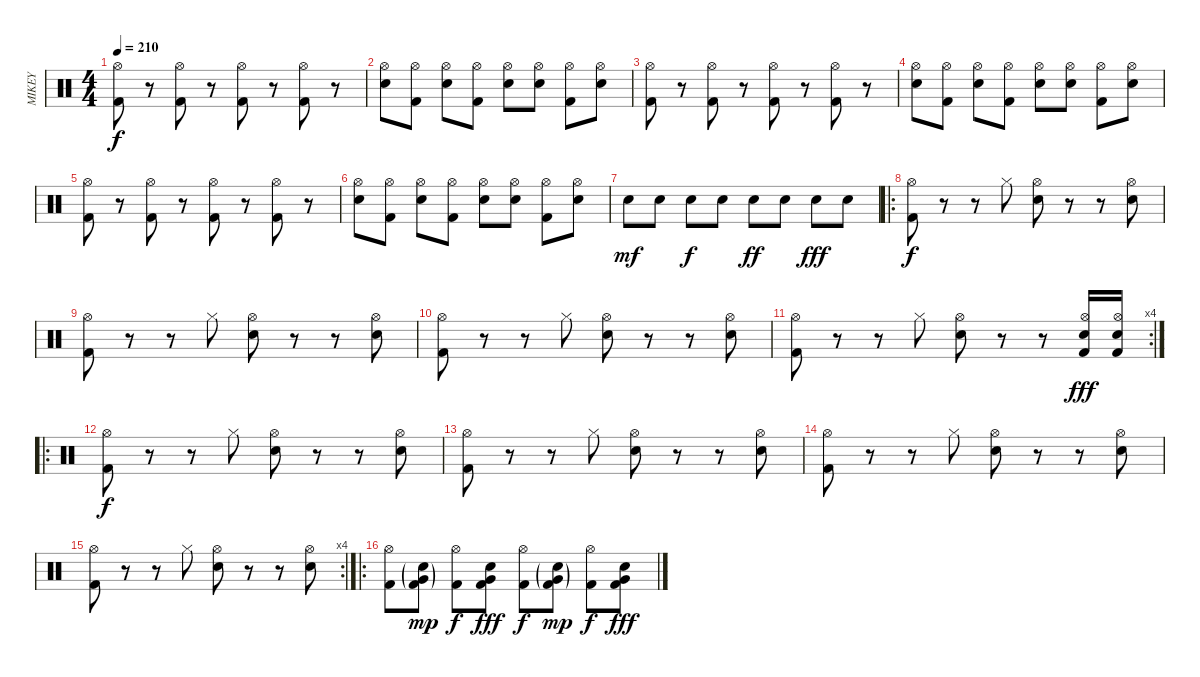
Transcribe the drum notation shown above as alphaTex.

\track ("MIKEY" "MIKEY") {instrument percussion}
\staff {score}
\articulation defaults
\ts (4 4)
\tempo 210
\clef neutral
\ks c
("Kick (hit) 2" "Hi-Hat (open)").8{dy f} r.8 ("Kick (hit) 2" "Hi-Hat (open)").8 r.8 ("Kick (hit) 2" "Hi-Hat (open)").8 r.8 ("Kick (hit) 2" "Hi-Hat (open)").8 r.8 |
("Snare (hit) 2" "Hi-Hat (open)").8 ("Kick (hit) 2" "Hi-Hat (open)").8 ("Snare (hit) 2" "Hi-Hat (open)").8 ("Kick (hit) 2" "Hi-Hat (open)").8 ("Snare (hit) 2" "Hi-Hat (open)").8 ("Snare (hit) 2" "Hi-Hat (open)").8 ("Kick (hit) 2" "Hi-Hat (open)").8 ("Snare (hit) 2" "Hi-Hat (open)").8 |
("Kick (hit) 2" "Hi-Hat (open)").8 r.8 ("Kick (hit) 2" "Hi-Hat (open)").8 r.8 ("Kick (hit) 2" "Hi-Hat (open)").8 r.8 ("Kick (hit) 2" "Hi-Hat (open)").8 r.8 |
("Snare (hit) 2" "Hi-Hat (open)").8 ("Kick (hit) 2" "Hi-Hat (open)").8 ("Snare (hit) 2" "Hi-Hat (open)").8 ("Kick (hit) 2" "Hi-Hat (open)").8 ("Snare (hit) 2" "Hi-Hat (open)").8 ("Snare (hit) 2" "Hi-Hat (open)").8 ("Kick (hit) 2" "Hi-Hat (open)").8 ("Snare (hit) 2" "Hi-Hat (open)").8 |
("Kick (hit) 2" "Hi-Hat (open)").8 r.8 ("Kick (hit) 2" "Hi-Hat (open)").8 r.8 ("Kick (hit) 2" "Hi-Hat (open)").8 r.8 ("Kick (hit) 2" "Hi-Hat (open)").8 r.8 |
("Snare (hit) 2" "Hi-Hat (open)").8 ("Kick (hit) 2" "Hi-Hat (open)").8 ("Snare (hit) 2" "Hi-Hat (open)").8 ("Kick (hit) 2" "Hi-Hat (open)").8 ("Snare (hit) 2" "Hi-Hat (open)").8 ("Snare (hit) 2" "Hi-Hat (open)").8 ("Kick (hit) 2" "Hi-Hat (open)").8 ("Snare (hit) 2" "Hi-Hat (open)").8 |
"Electric Snare (hit)".8{dy mf} "Electric Snare (hit)".8 "Electric Snare (hit)".8{dy f} "Electric Snare (hit)".8 "Electric Snare (hit)".8{dy ff} "Electric Snare (hit)".8 "Electric Snare (hit)".8{dy fff} "Electric Snare (hit)".8 |
\ro
("Hi-Hat (open)" "Kick (hit) 2").8{dy f} r.8 r.8 "Hi-Hat (closed)".8 ("Hi-Hat (open)" "Snare (hit) 2").8 r.8 r.8 ("Hi-Hat (open)" "Snare (hit) 2").8 |
("Hi-Hat (open)" "Kick (hit) 2").8 r.8 r.8 "Hi-Hat (closed)".8 ("Hi-Hat (open)" "Snare (hit) 2").8 r.8 r.8 ("Hi-Hat (open)" "Snare (hit) 2").8 |
("Hi-Hat (open)" "Kick (hit) 2").8 r.8 r.8 "Hi-Hat (closed)".8 ("Hi-Hat (open)" "Snare (hit) 2").8 r.8 r.8 ("Hi-Hat (open)" "Snare (hit) 2").8 |
\rc 4
("Hi-Hat (open)" "Kick (hit) 2").8 r.8 r.8 "Hi-Hat (closed)".8 ("Hi-Hat (open)" "Snare (hit) 2").8 r.8 r.8 ("Kick (hit) 2" "Hi-Hat (open)" "Electric Snare (hit)").16{dy fff} ("Kick (hit) 2" "Hi-Hat (open)" "Electric Snare (hit)").16 |
\ro
("Hi-Hat (open)" "Kick (hit) 2").8{dy f} r.8 r.8 "Hi-Hat (closed)".8 ("Hi-Hat (open)" "Snare (hit) 2").8 r.8 r.8 ("Hi-Hat (open)" "Snare (hit) 2").8 |
("Hi-Hat (open)" "Kick (hit) 2").8 r.8 r.8 "Hi-Hat (closed)".8 ("Hi-Hat (open)" "Snare (hit) 2").8 r.8 r.8 ("Hi-Hat (open)" "Snare (hit) 2").8 |
("Hi-Hat (open)" "Kick (hit) 2").8 r.8 r.8 "Hi-Hat (closed)".8 ("Hi-Hat (open)" "Snare (hit) 2").8 r.8 r.8 ("Hi-Hat (open)" "Snare (hit) 2").8 |
\rc 4
("Hi-Hat (open)" "Kick (hit) 2").8 r.8 r.8 "Hi-Hat (closed)".8 ("Hi-Hat (open)" "Snare (hit) 2").8 r.8 r.8 ("Hi-Hat (open)" "Snare (hit) 2").8 |
\ro
("Kick (hit) 2" "Hi-Hat (open)").8 ("Very Low Tom (hit)"{g} "Kick (hit) 2"{g} "Electric Snare (hit)"{g}).8{dy mp} ("Kick (hit) 2" "Hi-Hat (open)").8{dy f} ("Very Low Tom (hit)" "Kick (hit) 2" "Electric Snare (hit)").8{dy fff} ("Kick (hit) 2" "Hi-Hat (open)").8{dy f} ("Very Low Tom (hit)"{g} "Kick (hit) 2"{g} "Electric Snare (hit)"{g}).8{dy mp} ("Kick (hit) 2" "Hi-Hat (open)").8{dy f} ("Very Low Tom (hit)" "Kick (hit) 2" "Electric Snare (hit)").8{dy fff}
